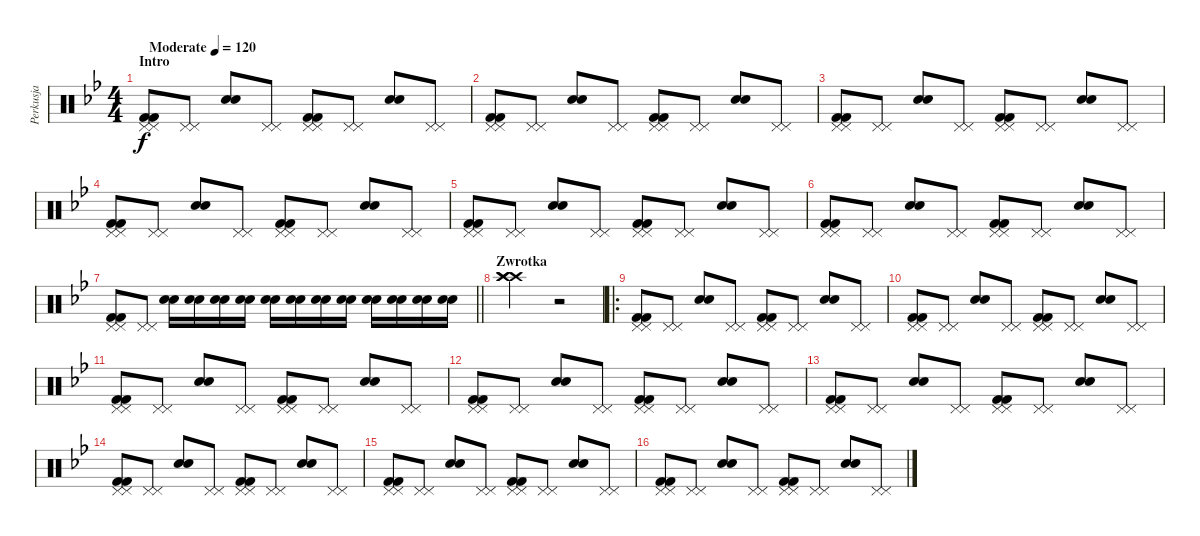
\track ("Perkusja" "Perkusja") {instrument percussion}
\staff {score}
\articulation defaults
\ts (4 4)
\section ("" "Intro")
\tempo (120 "Moderate")
\clef neutral
\ks bb
("Pedal Hi-Hat (hit)" "Pedal Hi-Hat (hit)" "Kick (hit) 2" "Kick (hit) 2").8{dy f} ("Pedal Hi-Hat (hit)" "Pedal Hi-Hat (hit)").8 ("Snare (hit) 2" "Snare (hit) 2").8 ("Pedal Hi-Hat (hit)" "Pedal Hi-Hat (hit)").8 ("Pedal Hi-Hat (hit)" "Pedal Hi-Hat (hit)" "Kick (hit) 2" "Kick (hit) 2").8 ("Pedal Hi-Hat (hit)" "Pedal Hi-Hat (hit)").8 ("Snare (hit) 2" "Snare (hit) 2").8 ("Pedal Hi-Hat (hit)" "Pedal Hi-Hat (hit)").8 |
("Pedal Hi-Hat (hit)" "Pedal Hi-Hat (hit)" "Kick (hit) 2" "Kick (hit) 2").8 ("Pedal Hi-Hat (hit)" "Pedal Hi-Hat (hit)").8 ("Snare (hit) 2" "Snare (hit) 2").8 ("Pedal Hi-Hat (hit)" "Pedal Hi-Hat (hit)").8 ("Pedal Hi-Hat (hit)" "Pedal Hi-Hat (hit)" "Kick (hit) 2" "Kick (hit) 2").8 ("Pedal Hi-Hat (hit)" "Pedal Hi-Hat (hit)").8 ("Snare (hit) 2" "Snare (hit) 2").8 ("Pedal Hi-Hat (hit)" "Pedal Hi-Hat (hit)").8 |
("Pedal Hi-Hat (hit)" "Pedal Hi-Hat (hit)" "Kick (hit) 2" "Kick (hit) 2").8 ("Pedal Hi-Hat (hit)" "Pedal Hi-Hat (hit)").8 ("Snare (hit) 2" "Snare (hit) 2").8 ("Pedal Hi-Hat (hit)" "Pedal Hi-Hat (hit)").8 ("Pedal Hi-Hat (hit)" "Pedal Hi-Hat (hit)" "Kick (hit) 2" "Kick (hit) 2").8 ("Pedal Hi-Hat (hit)" "Pedal Hi-Hat (hit)").8 ("Snare (hit) 2" "Snare (hit) 2").8 ("Pedal Hi-Hat (hit)" "Pedal Hi-Hat (hit)").8 |
("Pedal Hi-Hat (hit)" "Pedal Hi-Hat (hit)" "Kick (hit) 2" "Kick (hit) 2").8 ("Pedal Hi-Hat (hit)" "Pedal Hi-Hat (hit)").8 ("Snare (hit) 2" "Snare (hit) 2").8 ("Pedal Hi-Hat (hit)" "Pedal Hi-Hat (hit)").8 ("Pedal Hi-Hat (hit)" "Pedal Hi-Hat (hit)" "Kick (hit) 2" "Kick (hit) 2").8 ("Pedal Hi-Hat (hit)" "Pedal Hi-Hat (hit)").8 ("Snare (hit) 2" "Snare (hit) 2").8 ("Pedal Hi-Hat (hit)" "Pedal Hi-Hat (hit)").8 |
("Pedal Hi-Hat (hit)" "Pedal Hi-Hat (hit)" "Kick (hit) 2" "Kick (hit) 2").8 ("Pedal Hi-Hat (hit)" "Pedal Hi-Hat (hit)").8 ("Snare (hit) 2" "Snare (hit) 2").8 ("Pedal Hi-Hat (hit)" "Pedal Hi-Hat (hit)").8 ("Pedal Hi-Hat (hit)" "Pedal Hi-Hat (hit)" "Kick (hit) 2" "Kick (hit) 2").8 ("Pedal Hi-Hat (hit)" "Pedal Hi-Hat (hit)").8 ("Snare (hit) 2" "Snare (hit) 2").8 ("Pedal Hi-Hat (hit)" "Pedal Hi-Hat (hit)").8 |
("Pedal Hi-Hat (hit)" "Pedal Hi-Hat (hit)" "Kick (hit) 2" "Kick (hit) 2").8 ("Pedal Hi-Hat (hit)" "Pedal Hi-Hat (hit)").8 ("Snare (hit) 2" "Snare (hit) 2").8 ("Pedal Hi-Hat (hit)" "Pedal Hi-Hat (hit)").8 ("Pedal Hi-Hat (hit)" "Pedal Hi-Hat (hit)" "Kick (hit) 2" "Kick (hit) 2").8 ("Pedal Hi-Hat (hit)" "Pedal Hi-Hat (hit)").8 ("Snare (hit) 2" "Snare (hit) 2").8 ("Pedal Hi-Hat (hit)" "Pedal Hi-Hat (hit)").8 |
\barLineRight lightlight
("Pedal Hi-Hat (hit)" "Pedal Hi-Hat (hit)" "Kick (hit) 2" "Kick (hit) 2").8 ("Pedal Hi-Hat (hit)" "Pedal Hi-Hat (hit)").8 ("Snare (hit) 2" "Snare (hit) 2").16 ("Snare (hit) 2" "Snare (hit) 2").16 ("Snare (hit) 2" "Snare (hit) 2").16 ("Snare (hit) 2" "Snare (hit) 2").16 ("Snare (hit) 2" "Snare (hit) 2").16 ("Snare (hit) 2" "Snare (hit) 2").16 ("Snare (hit) 2" "Snare (hit) 2").16 ("Snare (hit) 2" "Snare (hit) 2").16 ("Snare (hit) 2" "Snare (hit) 2").16 ("Snare (hit) 2" "Snare (hit) 2").16 ("Snare (hit) 2" "Snare (hit) 2").16 ("Snare (hit) 2" "Snare (hit) 2").16 |
\section ("" "Zwrotka")
("Crash high (hit)" "Crash high (hit)" "Crash high (hit)").2 r.2 |
\ro
("Pedal Hi-Hat (hit)" "Pedal Hi-Hat (hit)" "Kick (hit) 2" "Kick (hit) 2").8 ("Pedal Hi-Hat (hit)" "Pedal Hi-Hat (hit)").8 ("Snare (hit) 2" "Snare (hit) 2").8 ("Pedal Hi-Hat (hit)" "Pedal Hi-Hat (hit)").8 ("Pedal Hi-Hat (hit)" "Pedal Hi-Hat (hit)" "Kick (hit) 2" "Kick (hit) 2").8 ("Pedal Hi-Hat (hit)" "Pedal Hi-Hat (hit)").8 ("Snare (hit) 2" "Snare (hit) 2").8 ("Pedal Hi-Hat (hit)" "Pedal Hi-Hat (hit)").8 |
("Pedal Hi-Hat (hit)" "Pedal Hi-Hat (hit)" "Kick (hit) 2" "Kick (hit) 2").8 ("Pedal Hi-Hat (hit)" "Pedal Hi-Hat (hit)").8 ("Snare (hit) 2" "Snare (hit) 2").8 ("Pedal Hi-Hat (hit)" "Pedal Hi-Hat (hit)").8 ("Pedal Hi-Hat (hit)" "Pedal Hi-Hat (hit)" "Kick (hit) 2" "Kick (hit) 2").8 ("Pedal Hi-Hat (hit)" "Pedal Hi-Hat (hit)").8 ("Snare (hit) 2" "Snare (hit) 2").8 ("Pedal Hi-Hat (hit)" "Pedal Hi-Hat (hit)").8 |
("Pedal Hi-Hat (hit)" "Pedal Hi-Hat (hit)" "Kick (hit) 2" "Kick (hit) 2").8 ("Pedal Hi-Hat (hit)" "Pedal Hi-Hat (hit)").8 ("Snare (hit) 2" "Snare (hit) 2").8 ("Pedal Hi-Hat (hit)" "Pedal Hi-Hat (hit)").8 ("Pedal Hi-Hat (hit)" "Pedal Hi-Hat (hit)" "Kick (hit) 2" "Kick (hit) 2").8 ("Pedal Hi-Hat (hit)" "Pedal Hi-Hat (hit)").8 ("Snare (hit) 2" "Snare (hit) 2").8 ("Pedal Hi-Hat (hit)" "Pedal Hi-Hat (hit)").8 |
("Pedal Hi-Hat (hit)" "Pedal Hi-Hat (hit)" "Kick (hit) 2" "Kick (hit) 2").8 ("Pedal Hi-Hat (hit)" "Pedal Hi-Hat (hit)").8 ("Snare (hit) 2" "Snare (hit) 2").8 ("Pedal Hi-Hat (hit)" "Pedal Hi-Hat (hit)").8 ("Pedal Hi-Hat (hit)" "Pedal Hi-Hat (hit)" "Kick (hit) 2" "Kick (hit) 2").8 ("Pedal Hi-Hat (hit)" "Pedal Hi-Hat (hit)").8 ("Snare (hit) 2" "Snare (hit) 2").8 ("Pedal Hi-Hat (hit)" "Pedal Hi-Hat (hit)").8 |
("Pedal Hi-Hat (hit)" "Pedal Hi-Hat (hit)" "Kick (hit) 2" "Kick (hit) 2").8 ("Pedal Hi-Hat (hit)" "Pedal Hi-Hat (hit)").8 ("Snare (hit) 2" "Snare (hit) 2").8 ("Pedal Hi-Hat (hit)" "Pedal Hi-Hat (hit)").8 ("Pedal Hi-Hat (hit)" "Pedal Hi-Hat (hit)" "Kick (hit) 2" "Kick (hit) 2").8 ("Pedal Hi-Hat (hit)" "Pedal Hi-Hat (hit)").8 ("Snare (hit) 2" "Snare (hit) 2").8 ("Pedal Hi-Hat (hit)" "Pedal Hi-Hat (hit)").8 |
("Pedal Hi-Hat (hit)" "Pedal Hi-Hat (hit)" "Kick (hit) 2" "Kick (hit) 2").8 ("Pedal Hi-Hat (hit)" "Pedal Hi-Hat (hit)").8 ("Snare (hit) 2" "Snare (hit) 2").8 ("Pedal Hi-Hat (hit)" "Pedal Hi-Hat (hit)").8 ("Pedal Hi-Hat (hit)" "Pedal Hi-Hat (hit)" "Kick (hit) 2" "Kick (hit) 2").8 ("Pedal Hi-Hat (hit)" "Pedal Hi-Hat (hit)").8 ("Snare (hit) 2" "Snare (hit) 2").8 ("Pedal Hi-Hat (hit)" "Pedal Hi-Hat (hit)").8 |
("Pedal Hi-Hat (hit)" "Pedal Hi-Hat (hit)" "Kick (hit) 2" "Kick (hit) 2").8 ("Pedal Hi-Hat (hit)" "Pedal Hi-Hat (hit)").8 ("Snare (hit) 2" "Snare (hit) 2").8 ("Pedal Hi-Hat (hit)" "Pedal Hi-Hat (hit)").8 ("Pedal Hi-Hat (hit)" "Pedal Hi-Hat (hit)" "Kick (hit) 2" "Kick (hit) 2").8 ("Pedal Hi-Hat (hit)" "Pedal Hi-Hat (hit)").8 ("Snare (hit) 2" "Snare (hit) 2").8 ("Pedal Hi-Hat (hit)" "Pedal Hi-Hat (hit)").8 |
("Pedal Hi-Hat (hit)" "Pedal Hi-Hat (hit)" "Kick (hit) 2" "Kick (hit) 2").8 ("Pedal Hi-Hat (hit)" "Pedal Hi-Hat (hit)").8 ("Snare (hit) 2" "Snare (hit) 2").8 ("Pedal Hi-Hat (hit)" "Pedal Hi-Hat (hit)").8 ("Pedal Hi-Hat (hit)" "Pedal Hi-Hat (hit)" "Kick (hit) 2" "Kick (hit) 2").8 ("Pedal Hi-Hat (hit)" "Pedal Hi-Hat (hit)").8 ("Snare (hit) 2" "Snare (hit) 2").8 ("Pedal Hi-Hat (hit)" "Pedal Hi-Hat (hit)").8
